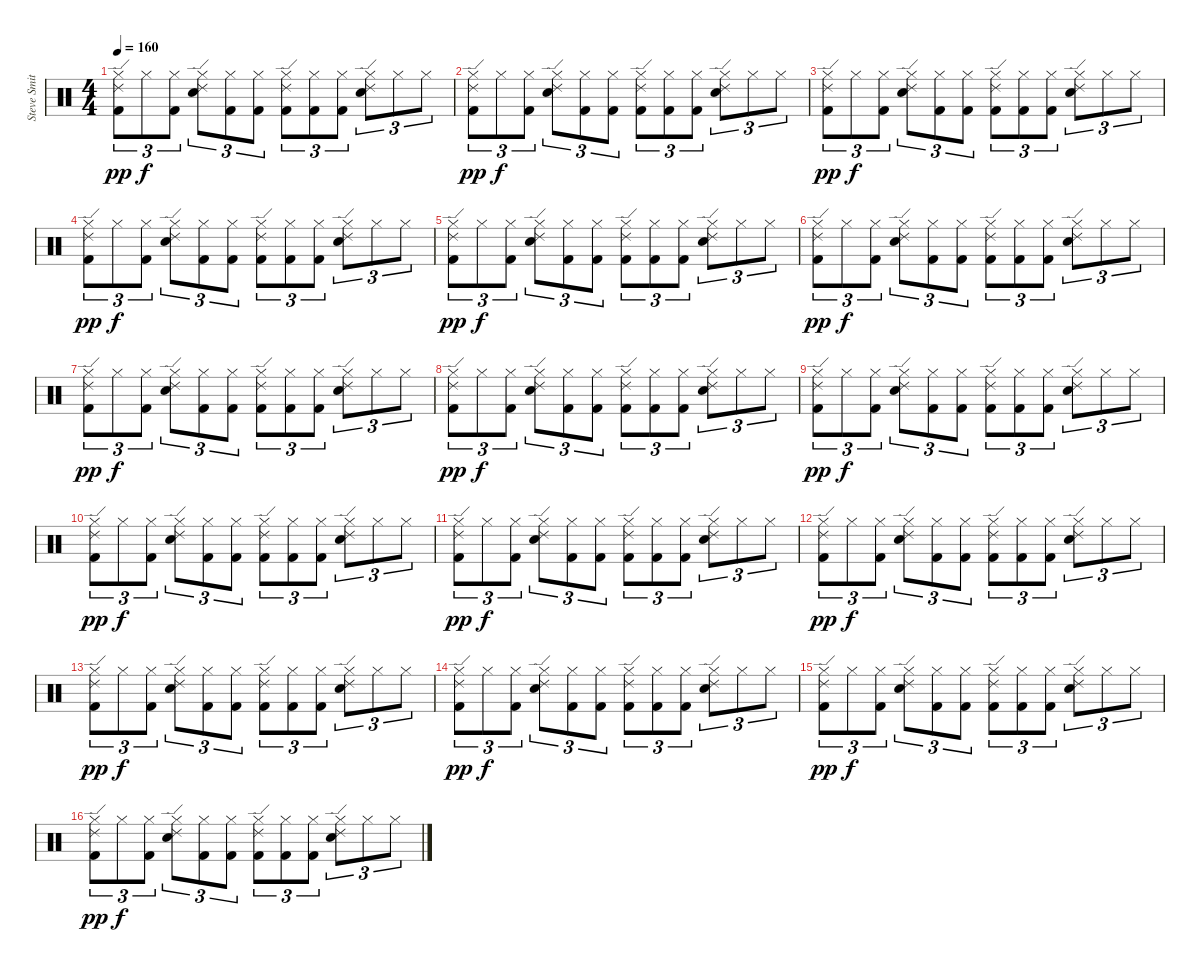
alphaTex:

\track ("Steve Smith" "Steve Smit") {instrument percussion}
\staff {score}
\articulation defaults
\ts (4 4)
\tempo 160
\clef neutral
\ks c
("Hi-Hat (closed)" "Ride (edge) 2" "Kick (hit) 2").8{tu (3 2) dy pp} "Hi-Hat (closed)".8{tu (3 2) dy f} ("Hi-Hat (closed)" "Kick (hit) 2").8{tu (3 2)} ("Hi-Hat (closed)" "Ride (edge) 2" "Snare (hit) 2").8{tu (3 2)} ("Hi-Hat (closed)" "Kick (hit) 2").8{tu (3 2)} ("Hi-Hat (closed)" "Kick (hit) 2").8{tu (3 2)} ("Hi-Hat (closed)" "Ride (edge) 2" "Kick (hit) 2").8{tu (3 2)} ("Hi-Hat (closed)" "Kick (hit) 2").8{tu (3 2)} ("Hi-Hat (closed)" "Kick (hit) 2").8{tu (3 2)} ("Hi-Hat (closed)" "Ride (edge) 2" "Snare (hit) 2").8{tu (3 2)} "Hi-Hat (closed)".8{tu (3 2)} "Hi-Hat (closed)".8{tu (3 2)} |
("Hi-Hat (closed)" "Ride (edge) 2" "Kick (hit) 2").8{tu (3 2) dy pp} "Hi-Hat (closed)".8{tu (3 2) dy f} ("Hi-Hat (closed)" "Kick (hit) 2").8{tu (3 2)} ("Hi-Hat (closed)" "Ride (edge) 2" "Snare (hit) 2").8{tu (3 2)} ("Hi-Hat (closed)" "Kick (hit) 2").8{tu (3 2)} ("Hi-Hat (closed)" "Kick (hit) 2").8{tu (3 2)} ("Hi-Hat (closed)" "Ride (edge) 2" "Kick (hit) 2").8{tu (3 2)} ("Hi-Hat (closed)" "Kick (hit) 2").8{tu (3 2)} ("Hi-Hat (closed)" "Kick (hit) 2").8{tu (3 2)} ("Hi-Hat (closed)" "Ride (edge) 2" "Snare (hit) 2").8{tu (3 2)} "Hi-Hat (closed)".8{tu (3 2)} "Hi-Hat (closed)".8{tu (3 2)} |
("Hi-Hat (closed)" "Ride (edge) 2" "Kick (hit) 2").8{tu (3 2) dy pp} "Hi-Hat (closed)".8{tu (3 2) dy f} ("Hi-Hat (closed)" "Kick (hit) 2").8{tu (3 2)} ("Hi-Hat (closed)" "Ride (edge) 2" "Snare (hit) 2").8{tu (3 2)} ("Hi-Hat (closed)" "Kick (hit) 2").8{tu (3 2)} ("Hi-Hat (closed)" "Kick (hit) 2").8{tu (3 2)} ("Hi-Hat (closed)" "Ride (edge) 2" "Kick (hit) 2").8{tu (3 2)} ("Hi-Hat (closed)" "Kick (hit) 2").8{tu (3 2)} ("Hi-Hat (closed)" "Kick (hit) 2").8{tu (3 2)} ("Hi-Hat (closed)" "Ride (edge) 2" "Snare (hit) 2").8{tu (3 2)} "Hi-Hat (closed)".8{tu (3 2)} "Hi-Hat (closed)".8{tu (3 2)} |
("Hi-Hat (closed)" "Ride (edge) 2" "Kick (hit) 2").8{tu (3 2) dy pp} "Hi-Hat (closed)".8{tu (3 2) dy f} ("Hi-Hat (closed)" "Kick (hit) 2").8{tu (3 2)} ("Hi-Hat (closed)" "Ride (edge) 2" "Snare (hit) 2").8{tu (3 2)} ("Hi-Hat (closed)" "Kick (hit) 2").8{tu (3 2)} ("Hi-Hat (closed)" "Kick (hit) 2").8{tu (3 2)} ("Hi-Hat (closed)" "Ride (edge) 2" "Kick (hit) 2").8{tu (3 2)} ("Hi-Hat (closed)" "Kick (hit) 2").8{tu (3 2)} ("Hi-Hat (closed)" "Kick (hit) 2").8{tu (3 2)} ("Hi-Hat (closed)" "Ride (edge) 2" "Snare (hit) 2").8{tu (3 2)} "Hi-Hat (closed)".8{tu (3 2)} "Hi-Hat (closed)".8{tu (3 2)} |
("Hi-Hat (closed)" "Ride (edge) 2" "Kick (hit) 2").8{tu (3 2) dy pp} "Hi-Hat (closed)".8{tu (3 2) dy f} ("Hi-Hat (closed)" "Kick (hit) 2").8{tu (3 2)} ("Hi-Hat (closed)" "Ride (edge) 2" "Snare (hit) 2").8{tu (3 2)} ("Hi-Hat (closed)" "Kick (hit) 2").8{tu (3 2)} ("Hi-Hat (closed)" "Kick (hit) 2").8{tu (3 2)} ("Hi-Hat (closed)" "Ride (edge) 2" "Kick (hit) 2").8{tu (3 2)} ("Hi-Hat (closed)" "Kick (hit) 2").8{tu (3 2)} ("Hi-Hat (closed)" "Kick (hit) 2").8{tu (3 2)} ("Hi-Hat (closed)" "Ride (edge) 2" "Snare (hit) 2").8{tu (3 2)} "Hi-Hat (closed)".8{tu (3 2)} "Hi-Hat (closed)".8{tu (3 2)} |
("Hi-Hat (closed)" "Ride (edge) 2" "Kick (hit) 2").8{tu (3 2) dy pp} "Hi-Hat (closed)".8{tu (3 2) dy f} ("Hi-Hat (closed)" "Kick (hit) 2").8{tu (3 2)} ("Hi-Hat (closed)" "Ride (edge) 2" "Snare (hit) 2").8{tu (3 2)} ("Hi-Hat (closed)" "Kick (hit) 2").8{tu (3 2)} ("Hi-Hat (closed)" "Kick (hit) 2").8{tu (3 2)} ("Hi-Hat (closed)" "Ride (edge) 2" "Kick (hit) 2").8{tu (3 2)} ("Hi-Hat (closed)" "Kick (hit) 2").8{tu (3 2)} ("Hi-Hat (closed)" "Kick (hit) 2").8{tu (3 2)} ("Hi-Hat (closed)" "Ride (edge) 2" "Snare (hit) 2").8{tu (3 2)} "Hi-Hat (closed)".8{tu (3 2)} "Hi-Hat (closed)".8{tu (3 2)} |
("Hi-Hat (closed)" "Ride (edge) 2" "Kick (hit) 2").8{tu (3 2) dy pp} "Hi-Hat (closed)".8{tu (3 2) dy f} ("Hi-Hat (closed)" "Kick (hit) 2").8{tu (3 2)} ("Hi-Hat (closed)" "Ride (edge) 2" "Snare (hit) 2").8{tu (3 2)} ("Hi-Hat (closed)" "Kick (hit) 2").8{tu (3 2)} ("Hi-Hat (closed)" "Kick (hit) 2").8{tu (3 2)} ("Hi-Hat (closed)" "Ride (edge) 2" "Kick (hit) 2").8{tu (3 2)} ("Hi-Hat (closed)" "Kick (hit) 2").8{tu (3 2)} ("Hi-Hat (closed)" "Kick (hit) 2").8{tu (3 2)} ("Hi-Hat (closed)" "Ride (edge) 2" "Snare (hit) 2").8{tu (3 2)} "Hi-Hat (closed)".8{tu (3 2)} "Hi-Hat (closed)".8{tu (3 2)} |
("Hi-Hat (closed)" "Ride (edge) 2" "Kick (hit) 2").8{tu (3 2) dy pp} "Hi-Hat (closed)".8{tu (3 2) dy f} ("Hi-Hat (closed)" "Kick (hit) 2").8{tu (3 2)} ("Hi-Hat (closed)" "Ride (edge) 2" "Snare (hit) 2").8{tu (3 2)} ("Hi-Hat (closed)" "Kick (hit) 2").8{tu (3 2)} ("Hi-Hat (closed)" "Kick (hit) 2").8{tu (3 2)} ("Hi-Hat (closed)" "Ride (edge) 2" "Kick (hit) 2").8{tu (3 2)} ("Hi-Hat (closed)" "Kick (hit) 2").8{tu (3 2)} ("Hi-Hat (closed)" "Kick (hit) 2").8{tu (3 2)} ("Hi-Hat (closed)" "Ride (edge) 2" "Snare (hit) 2").8{tu (3 2)} "Hi-Hat (closed)".8{tu (3 2)} "Hi-Hat (closed)".8{tu (3 2)} |
("Hi-Hat (closed)" "Ride (edge) 2" "Kick (hit) 2").8{tu (3 2) dy pp} "Hi-Hat (closed)".8{tu (3 2) dy f} ("Hi-Hat (closed)" "Kick (hit) 2").8{tu (3 2)} ("Hi-Hat (closed)" "Ride (edge) 2" "Snare (hit) 2").8{tu (3 2)} ("Hi-Hat (closed)" "Kick (hit) 2").8{tu (3 2)} ("Hi-Hat (closed)" "Kick (hit) 2").8{tu (3 2)} ("Hi-Hat (closed)" "Ride (edge) 2" "Kick (hit) 2").8{tu (3 2)} ("Hi-Hat (closed)" "Kick (hit) 2").8{tu (3 2)} ("Hi-Hat (closed)" "Kick (hit) 2").8{tu (3 2)} ("Hi-Hat (closed)" "Ride (edge) 2" "Snare (hit) 2").8{tu (3 2)} "Hi-Hat (closed)".8{tu (3 2)} "Hi-Hat (closed)".8{tu (3 2)} |
("Hi-Hat (closed)" "Ride (edge) 2" "Kick (hit) 2").8{tu (3 2) dy pp} "Hi-Hat (closed)".8{tu (3 2) dy f} ("Hi-Hat (closed)" "Kick (hit) 2").8{tu (3 2)} ("Hi-Hat (closed)" "Ride (edge) 2" "Snare (hit) 2").8{tu (3 2)} ("Hi-Hat (closed)" "Kick (hit) 2").8{tu (3 2)} ("Hi-Hat (closed)" "Kick (hit) 2").8{tu (3 2)} ("Hi-Hat (closed)" "Ride (edge) 2" "Kick (hit) 2").8{tu (3 2)} ("Hi-Hat (closed)" "Kick (hit) 2").8{tu (3 2)} ("Hi-Hat (closed)" "Kick (hit) 2").8{tu (3 2)} ("Hi-Hat (closed)" "Ride (edge) 2" "Snare (hit) 2").8{tu (3 2)} "Hi-Hat (closed)".8{tu (3 2)} "Hi-Hat (closed)".8{tu (3 2)} |
("Hi-Hat (closed)" "Ride (edge) 2" "Kick (hit) 2").8{tu (3 2) dy pp} "Hi-Hat (closed)".8{tu (3 2) dy f} ("Hi-Hat (closed)" "Kick (hit) 2").8{tu (3 2)} ("Hi-Hat (closed)" "Ride (edge) 2" "Snare (hit) 2").8{tu (3 2)} ("Hi-Hat (closed)" "Kick (hit) 2").8{tu (3 2)} ("Hi-Hat (closed)" "Kick (hit) 2").8{tu (3 2)} ("Hi-Hat (closed)" "Ride (edge) 2" "Kick (hit) 2").8{tu (3 2)} ("Hi-Hat (closed)" "Kick (hit) 2").8{tu (3 2)} ("Hi-Hat (closed)" "Kick (hit) 2").8{tu (3 2)} ("Hi-Hat (closed)" "Ride (edge) 2" "Snare (hit) 2").8{tu (3 2)} "Hi-Hat (closed)".8{tu (3 2)} "Hi-Hat (closed)".8{tu (3 2)} |
("Hi-Hat (closed)" "Ride (edge) 2" "Kick (hit) 2").8{tu (3 2) dy pp} "Hi-Hat (closed)".8{tu (3 2) dy f} ("Hi-Hat (closed)" "Kick (hit) 2").8{tu (3 2)} ("Hi-Hat (closed)" "Ride (edge) 2" "Snare (hit) 2").8{tu (3 2)} ("Hi-Hat (closed)" "Kick (hit) 2").8{tu (3 2)} ("Hi-Hat (closed)" "Kick (hit) 2").8{tu (3 2)} ("Hi-Hat (closed)" "Ride (edge) 2" "Kick (hit) 2").8{tu (3 2)} ("Hi-Hat (closed)" "Kick (hit) 2").8{tu (3 2)} ("Hi-Hat (closed)" "Kick (hit) 2").8{tu (3 2)} ("Hi-Hat (closed)" "Ride (edge) 2" "Snare (hit) 2").8{tu (3 2)} "Hi-Hat (closed)".8{tu (3 2)} "Hi-Hat (closed)".8{tu (3 2)} |
("Hi-Hat (closed)" "Ride (edge) 2" "Kick (hit) 2").8{tu (3 2) dy pp} "Hi-Hat (closed)".8{tu (3 2) dy f} ("Hi-Hat (closed)" "Kick (hit) 2").8{tu (3 2)} ("Hi-Hat (closed)" "Ride (edge) 2" "Snare (hit) 2").8{tu (3 2)} ("Hi-Hat (closed)" "Kick (hit) 2").8{tu (3 2)} ("Hi-Hat (closed)" "Kick (hit) 2").8{tu (3 2)} ("Hi-Hat (closed)" "Ride (edge) 2" "Kick (hit) 2").8{tu (3 2)} ("Hi-Hat (closed)" "Kick (hit) 2").8{tu (3 2)} ("Hi-Hat (closed)" "Kick (hit) 2").8{tu (3 2)} ("Hi-Hat (closed)" "Ride (edge) 2" "Snare (hit) 2").8{tu (3 2)} "Hi-Hat (closed)".8{tu (3 2)} "Hi-Hat (closed)".8{tu (3 2)} |
("Hi-Hat (closed)" "Ride (edge) 2" "Kick (hit) 2").8{tu (3 2) dy pp} "Hi-Hat (closed)".8{tu (3 2) dy f} ("Hi-Hat (closed)" "Kick (hit) 2").8{tu (3 2)} ("Hi-Hat (closed)" "Ride (edge) 2" "Snare (hit) 2").8{tu (3 2)} ("Hi-Hat (closed)" "Kick (hit) 2").8{tu (3 2)} ("Hi-Hat (closed)" "Kick (hit) 2").8{tu (3 2)} ("Hi-Hat (closed)" "Ride (edge) 2" "Kick (hit) 2").8{tu (3 2)} ("Hi-Hat (closed)" "Kick (hit) 2").8{tu (3 2)} ("Hi-Hat (closed)" "Kick (hit) 2").8{tu (3 2)} ("Hi-Hat (closed)" "Ride (edge) 2" "Snare (hit) 2").8{tu (3 2)} "Hi-Hat (closed)".8{tu (3 2)} "Hi-Hat (closed)".8{tu (3 2)} |
("Hi-Hat (closed)" "Ride (edge) 2" "Kick (hit) 2").8{tu (3 2) dy pp} "Hi-Hat (closed)".8{tu (3 2) dy f} ("Hi-Hat (closed)" "Kick (hit) 2").8{tu (3 2)} ("Hi-Hat (closed)" "Ride (edge) 2" "Snare (hit) 2").8{tu (3 2)} ("Hi-Hat (closed)" "Kick (hit) 2").8{tu (3 2)} ("Hi-Hat (closed)" "Kick (hit) 2").8{tu (3 2)} ("Hi-Hat (closed)" "Ride (edge) 2" "Kick (hit) 2").8{tu (3 2)} ("Hi-Hat (closed)" "Kick (hit) 2").8{tu (3 2)} ("Hi-Hat (closed)" "Kick (hit) 2").8{tu (3 2)} ("Hi-Hat (closed)" "Ride (edge) 2" "Snare (hit) 2").8{tu (3 2)} "Hi-Hat (closed)".8{tu (3 2)} "Hi-Hat (closed)".8{tu (3 2)} |
("Hi-Hat (closed)" "Ride (edge) 2" "Kick (hit) 2").8{tu (3 2) dy pp} "Hi-Hat (closed)".8{tu (3 2) dy f} ("Hi-Hat (closed)" "Kick (hit) 2").8{tu (3 2)} ("Hi-Hat (closed)" "Ride (edge) 2" "Snare (hit) 2").8{tu (3 2)} ("Hi-Hat (closed)" "Kick (hit) 2").8{tu (3 2)} ("Hi-Hat (closed)" "Kick (hit) 2").8{tu (3 2)} ("Hi-Hat (closed)" "Ride (edge) 2" "Kick (hit) 2").8{tu (3 2)} ("Hi-Hat (closed)" "Kick (hit) 2").8{tu (3 2)} ("Hi-Hat (closed)" "Kick (hit) 2").8{tu (3 2)} ("Hi-Hat (closed)" "Ride (edge) 2" "Snare (hit) 2").8{tu (3 2)} "Hi-Hat (closed)".8{tu (3 2)} "Hi-Hat (closed)".8{tu (3 2)}
